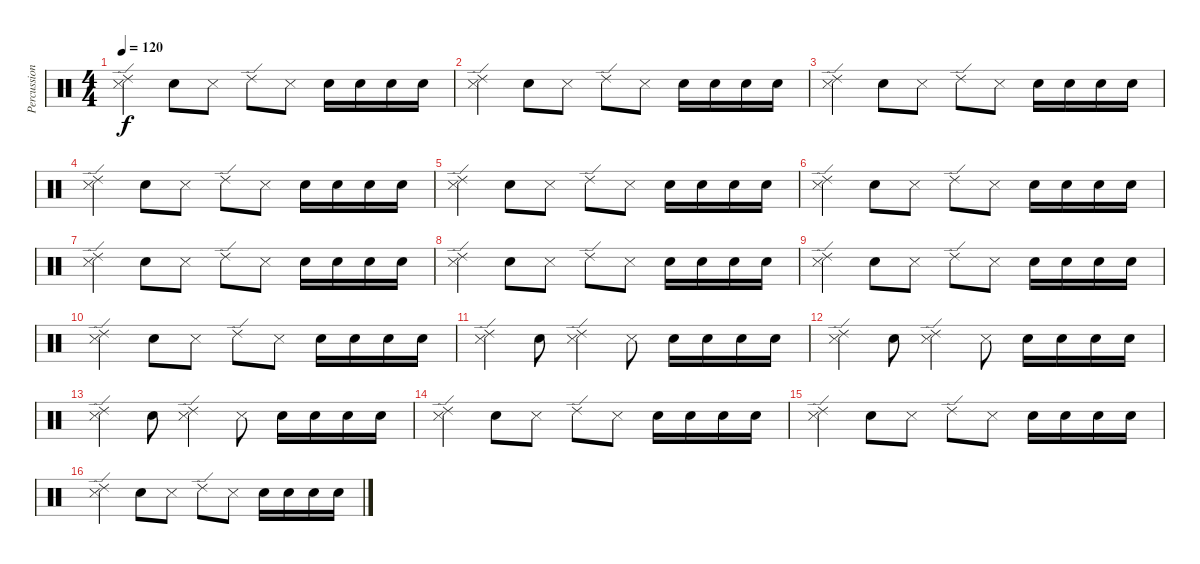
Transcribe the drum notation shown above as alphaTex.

\track ("Percussions" "Percussion") {instrument percussion}
\staff {score}
\articulation defaults
\ts (4 4)
\tempo 120
\clef neutral
\ks c
("Snare (side stick) 3" "Ride (edge) 2").4{dy f} "Electric Snare (hit)".8 "Snare (side stick) 3".8 "Ride (edge) 2".8 "Snare (side stick) 3".8 "Electric Snare (hit)".16 "Electric Snare (hit)".16 "Electric Snare (hit)".16 "Electric Snare (hit)".16 |
("Snare (side stick) 3" "Ride (edge) 2").4 "Electric Snare (hit)".8 "Snare (side stick) 3".8 "Ride (edge) 2".8 "Snare (side stick) 3".8 "Electric Snare (hit)".16 "Electric Snare (hit)".16 "Electric Snare (hit)".16 "Electric Snare (hit)".16 |
("Snare (side stick) 3" "Ride (edge) 2").4 "Electric Snare (hit)".8 "Snare (side stick) 3".8 "Ride (edge) 2".8 "Snare (side stick) 3".8 "Electric Snare (hit)".16 "Electric Snare (hit)".16 "Electric Snare (hit)".16 "Electric Snare (hit)".16 |
("Snare (side stick) 3" "Ride (edge) 2").4 "Electric Snare (hit)".8 "Snare (side stick) 3".8 "Ride (edge) 2".8 "Snare (side stick) 3".8 "Electric Snare (hit)".16 "Electric Snare (hit)".16 "Electric Snare (hit)".16 "Electric Snare (hit)".16 |
("Snare (side stick) 3" "Ride (edge) 2").4 "Electric Snare (hit)".8 "Snare (side stick) 3".8 "Ride (edge) 2".8 "Snare (side stick) 3".8 "Electric Snare (hit)".16 "Electric Snare (hit)".16 "Electric Snare (hit)".16 "Electric Snare (hit)".16 |
("Snare (side stick) 3" "Ride (edge) 2").4 "Electric Snare (hit)".8 "Snare (side stick) 3".8 "Ride (edge) 2".8 "Snare (side stick) 3".8 "Electric Snare (hit)".16 "Electric Snare (hit)".16 "Electric Snare (hit)".16 "Electric Snare (hit)".16 |
("Snare (side stick) 3" "Ride (edge) 2").4 "Electric Snare (hit)".8 "Snare (side stick) 3".8 "Ride (edge) 2".8 "Snare (side stick) 3".8 "Electric Snare (hit)".16 "Electric Snare (hit)".16 "Electric Snare (hit)".16 "Electric Snare (hit)".16 |
("Snare (side stick) 3" "Ride (edge) 2").4 "Electric Snare (hit)".8 "Snare (side stick) 3".8 "Ride (edge) 2".8 "Snare (side stick) 3".8 "Electric Snare (hit)".16 "Electric Snare (hit)".16 "Electric Snare (hit)".16 "Electric Snare (hit)".16 |
("Snare (side stick) 3" "Ride (edge) 2").4 "Electric Snare (hit)".8 "Snare (side stick) 3".8 "Ride (edge) 2".8 "Snare (side stick) 3".8 "Electric Snare (hit)".16 "Electric Snare (hit)".16 "Electric Snare (hit)".16 "Electric Snare (hit)".16 |
("Snare (side stick) 3" "Ride (edge) 2").4 "Electric Snare (hit)".8 "Snare (side stick) 3".8 "Ride (edge) 2".8 "Snare (side stick) 3".8 "Electric Snare (hit)".16 "Electric Snare (hit)".16 "Electric Snare (hit)".16 "Electric Snare (hit)".16 |
("Snare (side stick) 3" "Ride (edge) 2").4 "Electric Snare (hit)".8 ("Snare (side stick) 3" "Ride (edge) 2").4 "Snare (side stick) 3".8 "Electric Snare (hit)".16 "Electric Snare (hit)".16 "Electric Snare (hit)".16 "Electric Snare (hit)".16 |
("Snare (side stick) 3" "Ride (edge) 2").4 "Electric Snare (hit)".8 ("Snare (side stick) 3" "Ride (edge) 2").4 "Snare (side stick) 3".8 "Electric Snare (hit)".16 "Electric Snare (hit)".16 "Electric Snare (hit)".16 "Electric Snare (hit)".16 |
("Snare (side stick) 3" "Ride (edge) 2").4 "Electric Snare (hit)".8 ("Snare (side stick) 3" "Ride (edge) 2").4 "Snare (side stick) 3".8 "Electric Snare (hit)".16 "Electric Snare (hit)".16 "Electric Snare (hit)".16 "Electric Snare (hit)".16 |
("Snare (side stick) 3" "Ride (edge) 2").4 "Electric Snare (hit)".8 "Snare (side stick) 3".8 "Ride (edge) 2".8 "Snare (side stick) 3".8 "Electric Snare (hit)".16 "Electric Snare (hit)".16 "Electric Snare (hit)".16 "Electric Snare (hit)".16 |
("Snare (side stick) 3" "Ride (edge) 2").4 "Electric Snare (hit)".8 "Snare (side stick) 3".8 "Ride (edge) 2".8 "Snare (side stick) 3".8 "Electric Snare (hit)".16 "Electric Snare (hit)".16 "Electric Snare (hit)".16 "Electric Snare (hit)".16 |
("Snare (side stick) 3" "Ride (edge) 2").4 "Electric Snare (hit)".8 "Snare (side stick) 3".8 "Ride (edge) 2".8 "Snare (side stick) 3".8 "Electric Snare (hit)".16 "Electric Snare (hit)".16 "Electric Snare (hit)".16 "Electric Snare (hit)".16
